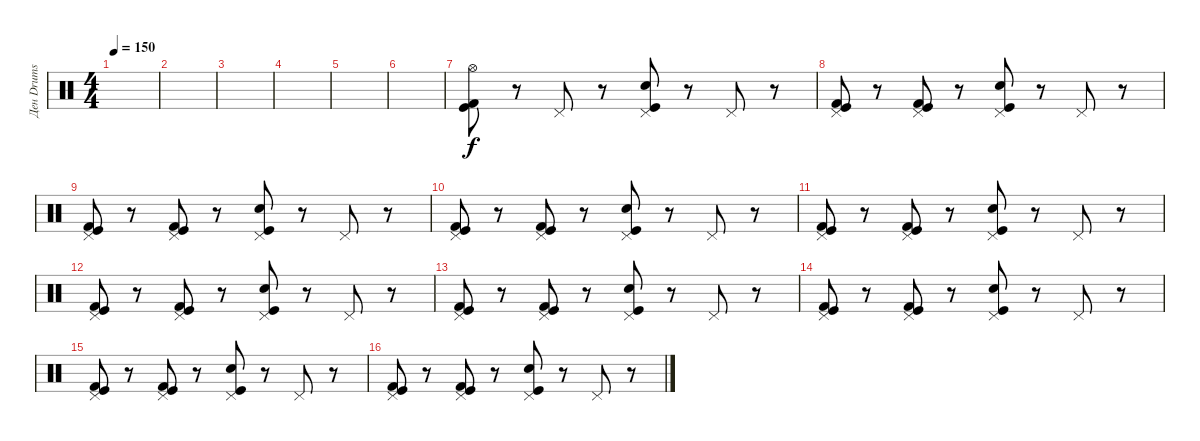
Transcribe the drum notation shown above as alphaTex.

\track ("Ден Drums" "Ден Drums") {instrument percussion}
\staff {score}
\articulation defaults
\ts (4 4)
\tempo 150
\clef neutral
\ks c
|
|
|
|
|
|
("Hi-Hat (open)" "Kick (hit)" "Kick (hit) 2").8 r.8 "Pedal Hi-Hat (hit)".8 r.8 ("Pedal Hi-Hat (hit)" "Electric Snare (hit)" "Kick (hit)").8 r.8 "Pedal Hi-Hat (hit)".8 r.8 |
("Pedal Hi-Hat (hit)" "Kick (hit)" "Kick (hit) 2").8 r.8 ("Pedal Hi-Hat (hit)" "Kick (hit)" "Kick (hit) 2").8 r.8 ("Pedal Hi-Hat (hit)" "Electric Snare (hit)" "Kick (hit)").8 r.8 "Pedal Hi-Hat (hit)".8 r.8 |
("Pedal Hi-Hat (hit)" "Kick (hit)" "Kick (hit) 2").8 r.8 ("Pedal Hi-Hat (hit)" "Kick (hit)" "Kick (hit) 2").8 r.8 ("Pedal Hi-Hat (hit)" "Electric Snare (hit)" "Kick (hit)").8 r.8 "Pedal Hi-Hat (hit)".8 r.8 |
("Pedal Hi-Hat (hit)" "Kick (hit)" "Kick (hit) 2").8 r.8 ("Pedal Hi-Hat (hit)" "Kick (hit)" "Kick (hit) 2").8 r.8 ("Pedal Hi-Hat (hit)" "Electric Snare (hit)" "Kick (hit)").8 r.8 "Pedal Hi-Hat (hit)".8 r.8 |
("Pedal Hi-Hat (hit)" "Kick (hit)" "Kick (hit) 2").8 r.8 ("Pedal Hi-Hat (hit)" "Kick (hit)" "Kick (hit) 2").8 r.8 ("Pedal Hi-Hat (hit)" "Electric Snare (hit)" "Kick (hit)").8 r.8 "Pedal Hi-Hat (hit)".8 r.8 |
("Pedal Hi-Hat (hit)" "Kick (hit)" "Kick (hit) 2").8 r.8 ("Pedal Hi-Hat (hit)" "Kick (hit)" "Kick (hit) 2").8 r.8 ("Pedal Hi-Hat (hit)" "Electric Snare (hit)" "Kick (hit)").8 r.8 "Pedal Hi-Hat (hit)".8 r.8 |
("Pedal Hi-Hat (hit)" "Kick (hit)" "Kick (hit) 2").8 r.8 ("Pedal Hi-Hat (hit)" "Kick (hit)" "Kick (hit) 2").8 r.8 ("Pedal Hi-Hat (hit)" "Electric Snare (hit)" "Kick (hit)").8 r.8 "Pedal Hi-Hat (hit)".8 r.8 |
("Pedal Hi-Hat (hit)" "Kick (hit)" "Kick (hit) 2").8 r.8 ("Pedal Hi-Hat (hit)" "Kick (hit)" "Kick (hit) 2").8 r.8 ("Pedal Hi-Hat (hit)" "Electric Snare (hit)" "Kick (hit)").8 r.8 "Pedal Hi-Hat (hit)".8 r.8 |
("Pedal Hi-Hat (hit)" "Kick (hit)" "Kick (hit) 2").8 r.8 ("Pedal Hi-Hat (hit)" "Kick (hit)" "Kick (hit) 2").8 r.8 ("Pedal Hi-Hat (hit)" "Electric Snare (hit)" "Kick (hit)").8 r.8 "Pedal Hi-Hat (hit)".8 r.8 |
("Pedal Hi-Hat (hit)" "Kick (hit)" "Kick (hit) 2").8 r.8 ("Pedal Hi-Hat (hit)" "Kick (hit)" "Kick (hit) 2").8 r.8 ("Pedal Hi-Hat (hit)" "Electric Snare (hit)" "Kick (hit)").8 r.8 "Pedal Hi-Hat (hit)".8 r.8
